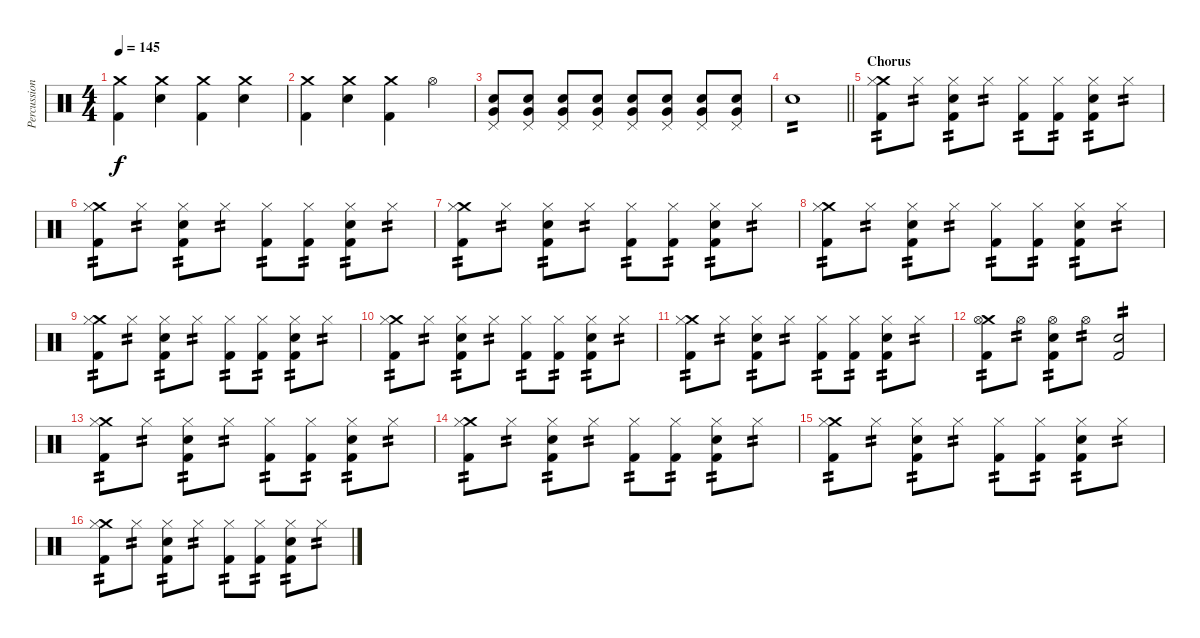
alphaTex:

\track ("Percussion" "Percussion") {instrument percussion}
\staff {score}
\articulation defaults
\ts (4 4)
\tempo 145
\clef neutral
\ks c
("Crash medium (hit)" "Kick (hit) 2").4{dy f} ("Crash medium (hit)" "Snare (hit) 2").4 ("Crash medium (hit)" "Kick (hit) 2").4 ("Crash medium (hit)" "Snare (hit) 2").4 |
("Crash medium (hit)" "Kick (hit) 2").4 ("Crash medium (hit)" "Snare (hit) 2").4 ("Crash medium (hit)" "Kick (hit) 2").4 "Hi-Hat (open)".4 |
("Pedal Hi-Hat (hit)" "Very Low Tom (hit)" "Snare (hit) 2").8 ("Pedal Hi-Hat (hit)" "Very Low Tom (hit)" "Snare (hit) 2").8 ("Pedal Hi-Hat (hit)" "Very Low Tom (hit)" "Snare (hit) 2").8 ("Pedal Hi-Hat (hit)" "Very Low Tom (hit)" "Snare (hit) 2").8 ("Pedal Hi-Hat (hit)" "Very Low Tom (hit)" "Snare (hit) 2").8 ("Pedal Hi-Hat (hit)" "Very Low Tom (hit)" "Snare (hit) 2").8 ("Pedal Hi-Hat (hit)" "Very Low Tom (hit)" "Snare (hit) 2").8 ("Pedal Hi-Hat (hit)" "Very Low Tom (hit)" "Snare (hit) 2").8 |
\barLineRight lightlight "Snare (hit) 2".1{tp 2}
|
\section ("" "Chorus")
("Crash medium (hit)" "Hi-Hat (closed)" "Kick (hit) 2").8{tp 2} "Hi-Hat (closed)".8{tp 2} ("Hi-Hat (closed)" "Snare (hit) 2" "Kick (hit) 2").8{tp 2} "Hi-Hat (closed)".8{tp 2} ("Hi-Hat (closed)" "Kick (hit) 2").8{tp 2} ("Hi-Hat (closed)" "Kick (hit) 2").8{tp 2} ("Hi-Hat (closed)" "Snare (hit) 2" "Kick (hit) 2").8{tp 2} "Hi-Hat (closed)".8{tp 2} |
("Crash medium (hit)" "Hi-Hat (closed)" "Kick (hit) 2").8{tp 2} "Hi-Hat (closed)".8{tp 2} ("Hi-Hat (closed)" "Snare (hit) 2" "Kick (hit) 2").8{tp 2} "Hi-Hat (closed)".8{tp 2} ("Hi-Hat (closed)" "Kick (hit) 2").8{tp 2} ("Hi-Hat (closed)" "Kick (hit) 2").8{tp 2} ("Hi-Hat (closed)" "Snare (hit) 2" "Kick (hit) 2").8{tp 2} "Hi-Hat (closed)".8{tp 2} |
("Crash medium (hit)" "Hi-Hat (closed)" "Kick (hit) 2").8{tp 2} "Hi-Hat (closed)".8{tp 2} ("Hi-Hat (closed)" "Snare (hit) 2" "Kick (hit) 2").8{tp 2} "Hi-Hat (closed)".8{tp 2} ("Hi-Hat (closed)" "Kick (hit) 2").8{tp 2} ("Hi-Hat (closed)" "Kick (hit) 2").8{tp 2} ("Hi-Hat (closed)" "Snare (hit) 2" "Kick (hit) 2").8{tp 2} "Hi-Hat (closed)".8{tp 2} |
("Crash medium (hit)" "Hi-Hat (closed)" "Kick (hit) 2").8{tp 2} "Hi-Hat (closed)".8{tp 2} ("Hi-Hat (closed)" "Snare (hit) 2" "Kick (hit) 2").8{tp 2} "Hi-Hat (closed)".8{tp 2} ("Hi-Hat (closed)" "Kick (hit) 2").8{tp 2} ("Hi-Hat (closed)" "Kick (hit) 2").8{tp 2} ("Hi-Hat (closed)" "Snare (hit) 2" "Kick (hit) 2").8{tp 2} "Hi-Hat (closed)".8{tp 2} |
("Crash medium (hit)" "Hi-Hat (closed)" "Kick (hit) 2").8{tp 2} "Hi-Hat (closed)".8{tp 2} ("Hi-Hat (closed)" "Snare (hit) 2" "Kick (hit) 2").8{tp 2} "Hi-Hat (closed)".8{tp 2} ("Hi-Hat (closed)" "Kick (hit) 2").8{tp 2} ("Hi-Hat (closed)" "Kick (hit) 2").8{tp 2} ("Hi-Hat (closed)" "Snare (hit) 2" "Kick (hit) 2").8{tp 2} "Hi-Hat (closed)".8{tp 2} |
("Crash medium (hit)" "Hi-Hat (closed)" "Kick (hit) 2").8{tp 2} "Hi-Hat (closed)".8{tp 2} ("Hi-Hat (closed)" "Snare (hit) 2" "Kick (hit) 2").8{tp 2} "Hi-Hat (closed)".8{tp 2} ("Hi-Hat (closed)" "Kick (hit) 2").8{tp 2} ("Hi-Hat (closed)" "Kick (hit) 2").8{tp 2} ("Hi-Hat (closed)" "Snare (hit) 2" "Kick (hit) 2").8{tp 2} "Hi-Hat (closed)".8{tp 2} |
("Crash medium (hit)" "Hi-Hat (closed)" "Kick (hit) 2").8{tp 2} "Hi-Hat (closed)".8{tp 2} ("Hi-Hat (closed)" "Snare (hit) 2" "Kick (hit) 2").8{tp 2} "Hi-Hat (closed)".8{tp 2} ("Hi-Hat (closed)" "Kick (hit) 2").8{tp 2} ("Hi-Hat (closed)" "Kick (hit) 2").8{tp 2} ("Hi-Hat (closed)" "Snare (hit) 2" "Kick (hit) 2").8{tp 2} "Hi-Hat (closed)".8{tp 2} |
("Crash medium (hit)" "Hi-Hat (open)" "Kick (hit) 2").8{tp 2} "Hi-Hat (open)".8{tp 2} ("Hi-Hat (open)" "Snare (hit) 2" "Kick (hit) 2").8{tp 2} "Hi-Hat (open)".8{tp 2} ("Snare (hit) 2" "Kick (hit) 2").2{tp 2} |
("Crash medium (hit)" "Hi-Hat (closed)" "Kick (hit) 2").8{tp 2} "Hi-Hat (closed)".8{tp 2} ("Hi-Hat (closed)" "Snare (hit) 2" "Kick (hit) 2").8{tp 2} "Hi-Hat (closed)".8{tp 2} ("Hi-Hat (closed)" "Kick (hit) 2").8{tp 2} ("Hi-Hat (closed)" "Kick (hit) 2").8{tp 2} ("Hi-Hat (closed)" "Snare (hit) 2" "Kick (hit) 2").8{tp 2} "Hi-Hat (closed)".8{tp 2} |
("Crash medium (hit)" "Hi-Hat (closed)" "Kick (hit) 2").8{tp 2} "Hi-Hat (closed)".8{tp 2} ("Hi-Hat (closed)" "Snare (hit) 2" "Kick (hit) 2").8{tp 2} "Hi-Hat (closed)".8{tp 2} ("Hi-Hat (closed)" "Kick (hit) 2").8{tp 2} ("Hi-Hat (closed)" "Kick (hit) 2").8{tp 2} ("Hi-Hat (closed)" "Snare (hit) 2" "Kick (hit) 2").8{tp 2} "Hi-Hat (closed)".8{tp 2} |
("Crash medium (hit)" "Hi-Hat (closed)" "Kick (hit) 2").8{tp 2} "Hi-Hat (closed)".8{tp 2} ("Hi-Hat (closed)" "Snare (hit) 2" "Kick (hit) 2").8{tp 2} "Hi-Hat (closed)".8{tp 2} ("Hi-Hat (closed)" "Kick (hit) 2").8{tp 2} ("Hi-Hat (closed)" "Kick (hit) 2").8{tp 2} ("Hi-Hat (closed)" "Snare (hit) 2" "Kick (hit) 2").8{tp 2} "Hi-Hat (closed)".8{tp 2} |
("Crash medium (hit)" "Hi-Hat (closed)" "Kick (hit) 2").8{tp 2} "Hi-Hat (closed)".8{tp 2} ("Hi-Hat (closed)" "Snare (hit) 2" "Kick (hit) 2").8{tp 2} "Hi-Hat (closed)".8{tp 2} ("Hi-Hat (closed)" "Kick (hit) 2").8{tp 2} ("Hi-Hat (closed)" "Kick (hit) 2").8{tp 2} ("Hi-Hat (closed)" "Snare (hit) 2" "Kick (hit) 2").8{tp 2} "Hi-Hat (closed)".8{tp 2}
